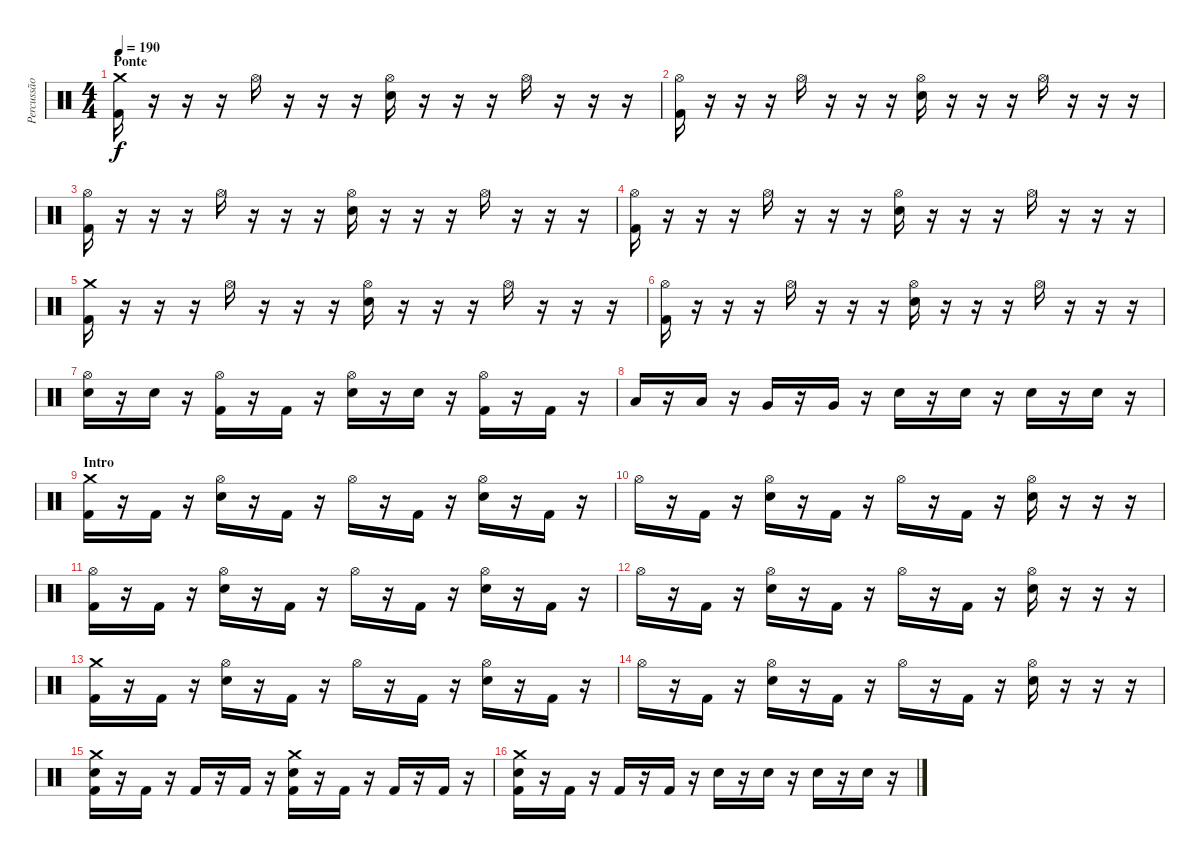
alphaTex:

\track ("Percussão" "Percussão") {instrument percussion}
\staff {score}
\articulation defaults
\ts (4 4)
\section ("" "Ponte")
\tempo 190
\clef neutral
\ks c
("Crash medium (hit)" "Kick (hit) 2").16{dy f} r.16 r.16 r.16 "Hi-Hat (open)".16 r.16 r.16 r.16 ("Hi-Hat (open)" "Electric Snare (hit)").16 r.16 r.16 r.16 "Hi-Hat (open)".16 r.16 r.16 r.16 |
("Hi-Hat (open)" "Kick (hit) 2").16 r.16 r.16 r.16 "Hi-Hat (open)".16 r.16 r.16 r.16 ("Hi-Hat (open)" "Electric Snare (hit)").16 r.16 r.16 r.16 "Hi-Hat (open)".16 r.16 r.16 r.16 |
("Hi-Hat (open)" "Kick (hit) 2").16 r.16 r.16 r.16 "Hi-Hat (open)".16 r.16 r.16 r.16 ("Hi-Hat (open)" "Electric Snare (hit)").16 r.16 r.16 r.16 "Hi-Hat (open)".16 r.16 r.16 r.16 |
("Hi-Hat (open)" "Kick (hit) 2").16 r.16 r.16 r.16 "Hi-Hat (open)".16 r.16 r.16 r.16 ("Hi-Hat (open)" "Electric Snare (hit)").16 r.16 r.16 r.16 "Hi-Hat (open)".16 r.16 r.16 r.16 |
("Crash medium (hit)" "Kick (hit) 2").16 r.16 r.16 r.16 "Hi-Hat (open)".16 r.16 r.16 r.16 ("Hi-Hat (open)" "Electric Snare (hit)").16 r.16 r.16 r.16 "Hi-Hat (open)".16 r.16 r.16 r.16 |
("Hi-Hat (open)" "Kick (hit) 2").16 r.16 r.16 r.16 "Hi-Hat (open)".16 r.16 r.16 r.16 ("Hi-Hat (open)" "Electric Snare (hit)").16 r.16 r.16 r.16 "Hi-Hat (open)".16 r.16 r.16 r.16 |
("Hi-Hat (open)" "Electric Snare (hit)").16 r.16 "Electric Snare (hit)".16 r.16 ("Hi-Hat (open)" "Kick (hit) 2").16 r.16 "Kick (hit) 2".16 r.16 ("Hi-Hat (open)" "Electric Snare (hit)").16 r.16 "Electric Snare (hit)".16 r.16 ("Hi-Hat (open)" "Kick (hit) 2").16 r.16 "Kick (hit) 2".16 r.16 |
"Low Tom (hit)".16 r.16 "Low Tom (hit)".16 r.16 "Very Low Tom (hit)".16 r.16 "Very Low Tom (hit)".16 r.16 "Electric Snare (hit)".16 r.16 "Electric Snare (hit)".16 r.16 "Electric Snare (hit)".16 r.16 "Electric Snare (hit)".16 r.16 |
\section ("" "Intro")
("Crash medium (hit)" "Kick (hit) 2").16 r.16 "Kick (hit) 2".16 r.16 ("Hi-Hat (open)" "Electric Snare (hit)").16 r.16 "Kick (hit) 2".16 r.16 "Hi-Hat (open)".16 r.16 "Kick (hit) 2".16 r.16 ("Hi-Hat (open)" "Electric Snare (hit)").16 r.16 "Kick (hit) 2".16 r.16 |
"Hi-Hat (open)".16 r.16 "Kick (hit) 2".16 r.16 ("Hi-Hat (open)" "Electric Snare (hit)").16 r.16 "Kick (hit) 2".16 r.16 "Hi-Hat (open)".16 r.16 "Kick (hit) 2".16 r.16 ("Hi-Hat (open)" "Electric Snare (hit)").16 r.16 r.16 r.16 |
("Hi-Hat (open)" "Kick (hit) 2").16 r.16 "Kick (hit) 2".16 r.16 ("Hi-Hat (open)" "Electric Snare (hit)").16 r.16 "Kick (hit) 2".16 r.16 "Hi-Hat (open)".16 r.16 "Kick (hit) 2".16 r.16 ("Hi-Hat (open)" "Electric Snare (hit)").16 r.16 "Kick (hit) 2".16 r.16 |
"Hi-Hat (open)".16 r.16 "Kick (hit) 2".16 r.16 ("Hi-Hat (open)" "Electric Snare (hit)").16 r.16 "Kick (hit) 2".16 r.16 "Hi-Hat (open)".16 r.16 "Kick (hit) 2".16 r.16 ("Hi-Hat (open)" "Electric Snare (hit)").16 r.16 r.16 r.16 |
("Crash medium (hit)" "Kick (hit) 2").16 r.16 "Kick (hit) 2".16 r.16 ("Hi-Hat (open)" "Electric Snare (hit)").16 r.16 "Kick (hit) 2".16 r.16 "Hi-Hat (open)".16 r.16 "Kick (hit) 2".16 r.16 ("Hi-Hat (open)" "Electric Snare (hit)").16 r.16 "Kick (hit) 2".16 r.16 |
"Hi-Hat (open)".16 r.16 "Kick (hit) 2".16 r.16 ("Hi-Hat (open)" "Electric Snare (hit)").16 r.16 "Kick (hit) 2".16 r.16 "Hi-Hat (open)".16 r.16 "Kick (hit) 2".16 r.16 ("Hi-Hat (open)" "Electric Snare (hit)").16 r.16 r.16 r.16 |
("Crash medium (hit)" "Electric Snare (hit)" "Kick (hit) 2").16 r.16 "Kick (hit) 2".16 r.16 "Kick (hit) 2".16 r.16 "Kick (hit) 2".16 r.16 ("Crash medium (hit)" "Electric Snare (hit)" "Kick (hit) 2").16 r.16 "Kick (hit) 2".16 r.16 "Kick (hit) 2".16 r.16 "Kick (hit) 2".16 r.16 |
("Crash medium (hit)" "Electric Snare (hit)" "Kick (hit) 2").16 r.16 "Kick (hit) 2".16 r.16 "Kick (hit) 2".16 r.16 "Kick (hit) 2".16 r.16 "Electric Snare (hit)".16 r.16 "Electric Snare (hit)".16 r.16 "Electric Snare (hit)".16 r.16 "Electric Snare (hit)".16 r.16
